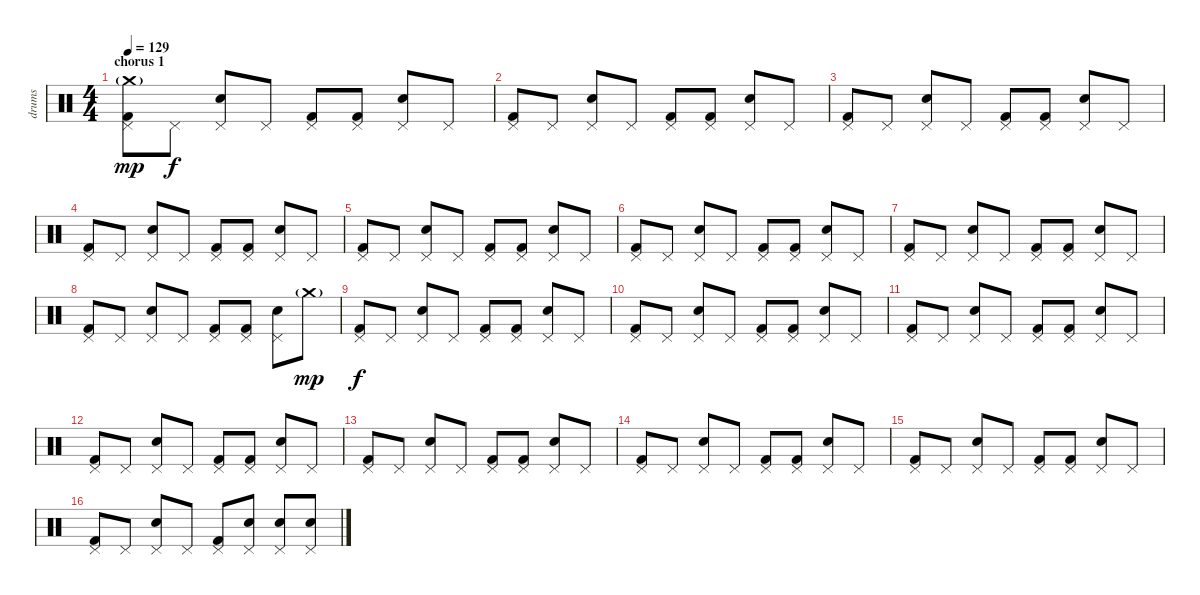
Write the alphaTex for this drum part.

\track ("drums" "drums") {instrument percussion}
\staff {score}
\articulation defaults
\ts (4 4)
\section ("" "chorus 1")
\tempo 129
\clef neutral
\ks c
("Kick (hit) 2" "Pedal Hi-Hat (hit)" "Crash medium (hit)"{g}).8{dy mp} "Pedal Hi-Hat (hit)".8{dy f} ("Electric Snare (hit)" "Pedal Hi-Hat (hit)").8 "Pedal Hi-Hat (hit)".8 ("Kick (hit) 2" "Pedal Hi-Hat (hit)").8 ("Kick (hit) 2" "Pedal Hi-Hat (hit)").8 ("Electric Snare (hit)" "Pedal Hi-Hat (hit)").8 "Pedal Hi-Hat (hit)".8 |
("Kick (hit) 2" "Pedal Hi-Hat (hit)").8 "Pedal Hi-Hat (hit)".8 ("Electric Snare (hit)" "Pedal Hi-Hat (hit)").8 "Pedal Hi-Hat (hit)".8 ("Kick (hit) 2" "Pedal Hi-Hat (hit)").8 ("Kick (hit) 2" "Pedal Hi-Hat (hit)").8 ("Electric Snare (hit)" "Pedal Hi-Hat (hit)").8 "Pedal Hi-Hat (hit)".8 |
("Kick (hit) 2" "Pedal Hi-Hat (hit)").8 "Pedal Hi-Hat (hit)".8 ("Electric Snare (hit)" "Pedal Hi-Hat (hit)").8 "Pedal Hi-Hat (hit)".8 ("Kick (hit) 2" "Pedal Hi-Hat (hit)").8 ("Kick (hit) 2" "Pedal Hi-Hat (hit)").8 ("Electric Snare (hit)" "Pedal Hi-Hat (hit)").8 "Pedal Hi-Hat (hit)".8 |
("Kick (hit) 2" "Pedal Hi-Hat (hit)").8 "Pedal Hi-Hat (hit)".8 ("Electric Snare (hit)" "Pedal Hi-Hat (hit)").8 "Pedal Hi-Hat (hit)".8 ("Kick (hit) 2" "Pedal Hi-Hat (hit)").8 ("Kick (hit) 2" "Pedal Hi-Hat (hit)").8 ("Electric Snare (hit)" "Pedal Hi-Hat (hit)").8 "Pedal Hi-Hat (hit)".8 |
("Kick (hit) 2" "Pedal Hi-Hat (hit)").8 "Pedal Hi-Hat (hit)".8 ("Electric Snare (hit)" "Pedal Hi-Hat (hit)").8 "Pedal Hi-Hat (hit)".8 ("Kick (hit) 2" "Pedal Hi-Hat (hit)").8 ("Kick (hit) 2" "Pedal Hi-Hat (hit)").8 ("Electric Snare (hit)" "Pedal Hi-Hat (hit)").8 "Pedal Hi-Hat (hit)".8 |
("Kick (hit) 2" "Pedal Hi-Hat (hit)").8 "Pedal Hi-Hat (hit)".8 ("Electric Snare (hit)" "Pedal Hi-Hat (hit)").8 "Pedal Hi-Hat (hit)".8 ("Kick (hit) 2" "Pedal Hi-Hat (hit)").8 ("Kick (hit) 2" "Pedal Hi-Hat (hit)").8 ("Electric Snare (hit)" "Pedal Hi-Hat (hit)").8 "Pedal Hi-Hat (hit)".8 |
("Kick (hit) 2" "Pedal Hi-Hat (hit)").8 "Pedal Hi-Hat (hit)".8 ("Electric Snare (hit)" "Pedal Hi-Hat (hit)").8 "Pedal Hi-Hat (hit)".8 ("Kick (hit) 2" "Pedal Hi-Hat (hit)").8 ("Kick (hit) 2" "Pedal Hi-Hat (hit)").8 ("Electric Snare (hit)" "Pedal Hi-Hat (hit)").8 "Pedal Hi-Hat (hit)".8 |
("Kick (hit) 2" "Pedal Hi-Hat (hit)").8 "Pedal Hi-Hat (hit)".8 ("Electric Snare (hit)" "Pedal Hi-Hat (hit)").8 "Pedal Hi-Hat (hit)".8 ("Kick (hit) 2" "Pedal Hi-Hat (hit)").8 ("Kick (hit) 2" "Pedal Hi-Hat (hit)").8 ("Electric Snare (hit)" "Pedal Hi-Hat (hit)").8 "Crash medium (hit)"{g}.8{dy mp} |
("Kick (hit) 2" "Pedal Hi-Hat (hit)").8{dy f} "Pedal Hi-Hat (hit)".8 ("Electric Snare (hit)" "Pedal Hi-Hat (hit)").8 "Pedal Hi-Hat (hit)".8 ("Kick (hit) 2" "Pedal Hi-Hat (hit)").8 ("Kick (hit) 2" "Pedal Hi-Hat (hit)").8 ("Electric Snare (hit)" "Pedal Hi-Hat (hit)").8 "Pedal Hi-Hat (hit)".8 |
("Kick (hit) 2" "Pedal Hi-Hat (hit)").8 "Pedal Hi-Hat (hit)".8 ("Electric Snare (hit)" "Pedal Hi-Hat (hit)").8 "Pedal Hi-Hat (hit)".8 ("Kick (hit) 2" "Pedal Hi-Hat (hit)").8 ("Kick (hit) 2" "Pedal Hi-Hat (hit)").8 ("Electric Snare (hit)" "Pedal Hi-Hat (hit)").8 "Pedal Hi-Hat (hit)".8 |
("Kick (hit) 2" "Pedal Hi-Hat (hit)").8 "Pedal Hi-Hat (hit)".8 ("Electric Snare (hit)" "Pedal Hi-Hat (hit)").8 "Pedal Hi-Hat (hit)".8 ("Kick (hit) 2" "Pedal Hi-Hat (hit)").8 ("Kick (hit) 2" "Pedal Hi-Hat (hit)").8 ("Electric Snare (hit)" "Pedal Hi-Hat (hit)").8 "Pedal Hi-Hat (hit)".8 |
("Kick (hit) 2" "Pedal Hi-Hat (hit)").8 "Pedal Hi-Hat (hit)".8 ("Electric Snare (hit)" "Pedal Hi-Hat (hit)").8 "Pedal Hi-Hat (hit)".8 ("Kick (hit) 2" "Pedal Hi-Hat (hit)").8 ("Kick (hit) 2" "Pedal Hi-Hat (hit)").8 ("Electric Snare (hit)" "Pedal Hi-Hat (hit)").8 "Pedal Hi-Hat (hit)".8 |
("Kick (hit) 2" "Pedal Hi-Hat (hit)").8 "Pedal Hi-Hat (hit)".8 ("Electric Snare (hit)" "Pedal Hi-Hat (hit)").8 "Pedal Hi-Hat (hit)".8 ("Kick (hit) 2" "Pedal Hi-Hat (hit)").8 ("Kick (hit) 2" "Pedal Hi-Hat (hit)").8 ("Electric Snare (hit)" "Pedal Hi-Hat (hit)").8 "Pedal Hi-Hat (hit)".8 |
("Kick (hit) 2" "Pedal Hi-Hat (hit)").8 "Pedal Hi-Hat (hit)".8 ("Electric Snare (hit)" "Pedal Hi-Hat (hit)").8 "Pedal Hi-Hat (hit)".8 ("Kick (hit) 2" "Pedal Hi-Hat (hit)").8 ("Kick (hit) 2" "Pedal Hi-Hat (hit)").8 ("Electric Snare (hit)" "Pedal Hi-Hat (hit)").8 "Pedal Hi-Hat (hit)".8 |
("Kick (hit) 2" "Pedal Hi-Hat (hit)").8 "Pedal Hi-Hat (hit)".8 ("Electric Snare (hit)" "Pedal Hi-Hat (hit)").8 "Pedal Hi-Hat (hit)".8 ("Kick (hit) 2" "Pedal Hi-Hat (hit)").8 ("Kick (hit) 2" "Pedal Hi-Hat (hit)").8 ("Electric Snare (hit)" "Pedal Hi-Hat (hit)").8 "Pedal Hi-Hat (hit)".8 |
("Kick (hit) 2" "Pedal Hi-Hat (hit)").8 "Pedal Hi-Hat (hit)".8 ("Electric Snare (hit)" "Pedal Hi-Hat (hit)").8 "Pedal Hi-Hat (hit)".8 ("Kick (hit) 2" "Pedal Hi-Hat (hit)").8 ("Electric Snare (hit)" "Pedal Hi-Hat (hit)").8 ("Electric Snare (hit)" "Pedal Hi-Hat (hit)").8 ("Electric Snare (hit)" "Pedal Hi-Hat (hit)").8
